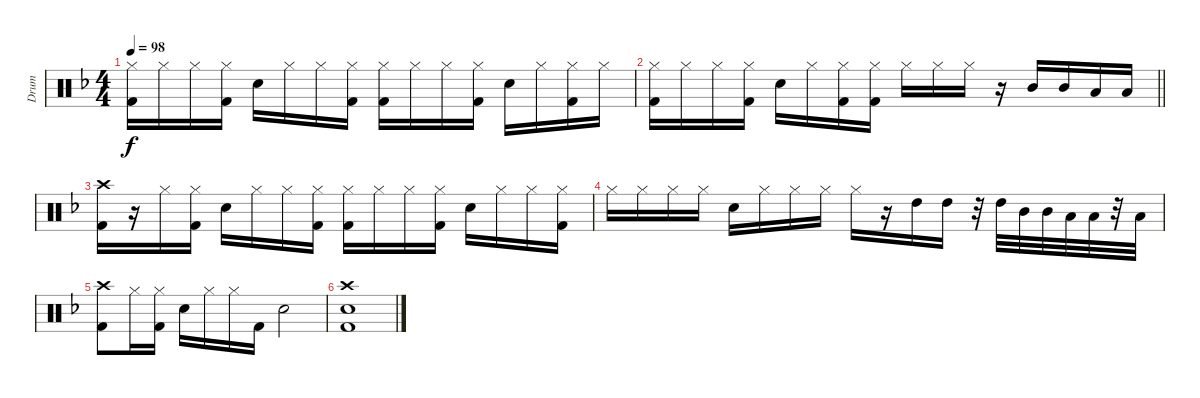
\track ("Drum" "Drum") {instrument percussion}
\staff {score}
\articulation defaults
\ts (4 4)
\tempo 98
\clef neutral
\ks f
("Hi-Hat (closed)" "Kick (hit) 2").16{dy f} "Hi-Hat (closed)".16 "Hi-Hat (closed)".16 ("Hi-Hat (closed)" "Kick (hit) 2").16 "Snare (hit) 2".16 "Hi-Hat (closed)".16 "Hi-Hat (closed)".16 ("Hi-Hat (closed)" "Kick (hit) 2").16 ("Hi-Hat (closed)" "Kick (hit) 2").16 "Hi-Hat (closed)".16 "Hi-Hat (closed)".16 ("Hi-Hat (closed)" "Kick (hit) 2").16 "Snare (hit) 2".16 "Hi-Hat (closed)".16 ("Hi-Hat (closed)" "Kick (hit) 2").16 "Hi-Hat (closed)".16 |
\barLineRight lightlight
("Hi-Hat (closed)" "Kick (hit) 2").16 "Hi-Hat (closed)".16 "Hi-Hat (closed)".16 ("Hi-Hat (closed)" "Kick (hit) 2").16 "Snare (hit) 2".16 "Hi-Hat (closed)".16 ("Hi-Hat (closed)" "Kick (hit) 2").16 ("Hi-Hat (closed)" "Kick (hit) 2").16 "Hi-Hat (closed)".16 "Hi-Hat (closed)".16 "Hi-Hat (closed)".16 r.16 "Mid Tom (hit)".16 "Mid Tom (hit)".16 "Low Floor Tom (hit)".16 "Low Floor Tom (hit)".16 |
("Crash high (hit)" "Kick (hit) 2").16 r.16 "Hi-Hat (closed)".16 ("Hi-Hat (closed)" "Kick (hit) 2").16 "Snare (hit) 2".16 "Hi-Hat (closed)".16 "Hi-Hat (closed)".16 ("Hi-Hat (closed)" "Kick (hit) 2").16 ("Hi-Hat (closed)" "Kick (hit) 2").16 "Hi-Hat (closed)".16 "Hi-Hat (closed)".16 ("Hi-Hat (closed)" "Kick (hit) 2").16 "Snare (hit) 2".16 "Hi-Hat (closed)".16 "Hi-Hat (closed)".16 ("Hi-Hat (closed)" "Kick (hit) 2").16 |
"Hi-Hat (closed)".16 "Hi-Hat (closed)".16 "Hi-Hat (closed)".16 "Hi-Hat (closed)".16 "Snare (hit) 2".16 "Hi-Hat (closed)".16 "Hi-Hat (closed)".16 "Hi-Hat (closed)".16 "Hi-Hat (closed)".16 r.16 "High Tom (hit)".16 "High Tom (hit)".16 r.32 "High Tom (hit)".32 "Mid Tom (hit)".32 "Mid Tom (hit)".32 "Low Floor Tom (hit)".32 "Low Floor Tom (hit)".32 r.32 "Low Floor Tom (hit)".32 |
("Crash high (hit)" "Kick (hit) 2").8 "Hi-Hat (closed)".16 ("Hi-Hat (closed)" "Kick (hit) 2").16 "Snare (hit) 2".16 "Hi-Hat (closed)".16 "Hi-Hat (closed)".16 "Kick (hit) 2".16 "Snare (hit) 2".2 |
("Crash high (hit)" "Snare (hit) 2" "Kick (hit) 2").1
